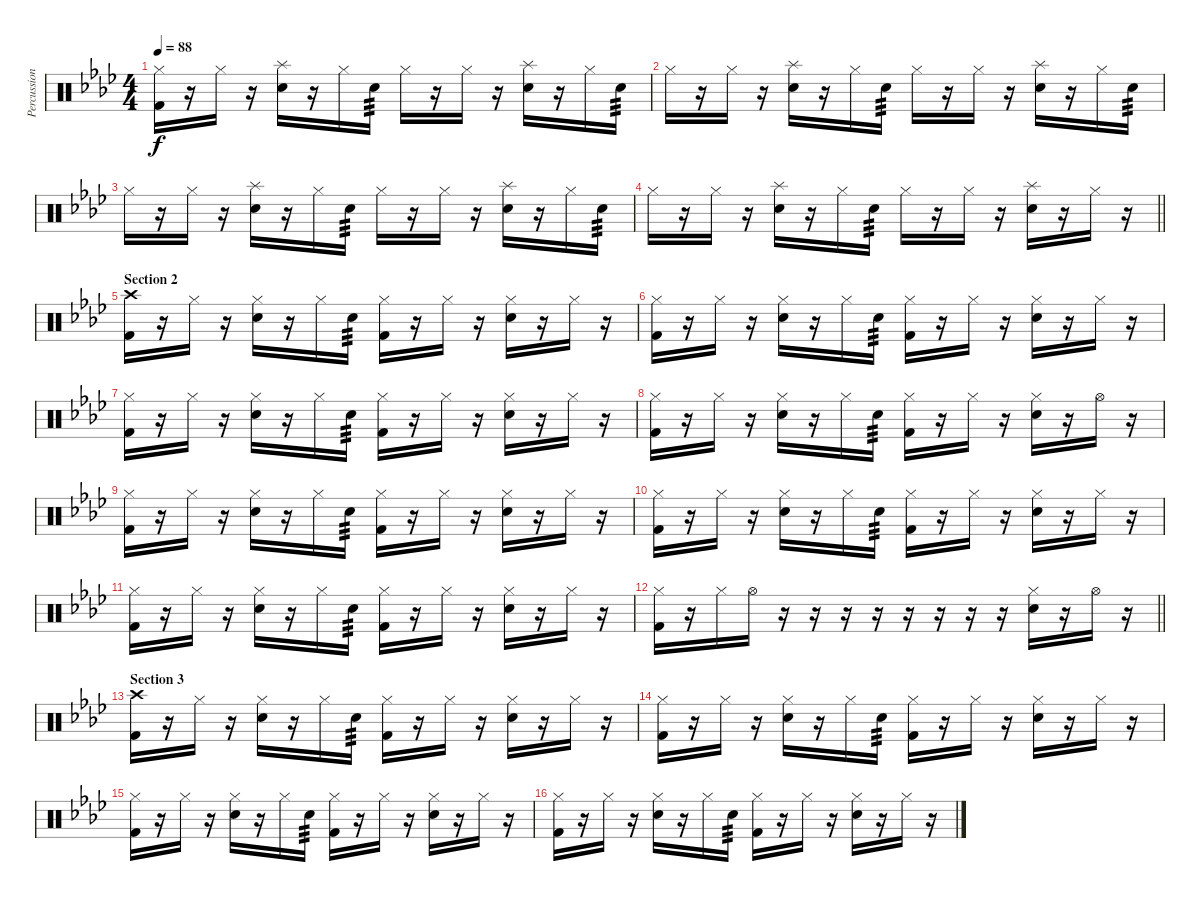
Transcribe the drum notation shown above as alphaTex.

\track ("Percussion" "Percussion") {instrument percussion}
\staff {score}
\articulation defaults
\ts (4 4)
\tempo 88
\clef neutral
\ks fminor
("Hi-Hat (closed)" "Kick (hit) 2").16{dy f} r.16 "Hi-Hat (closed)".16 r.16 ("Splash (hit)" "Snare (hit) 2").16 r.16 "Hi-Hat (closed)".16 "Snare (hit) 2".16{tp 3} "Hi-Hat (closed)".16 r.16 "Hi-Hat (closed)".16 r.16 ("Splash (hit)" "Snare (hit) 2").16 r.16 "Hi-Hat (closed)".16 "Snare (hit) 2".16{tp 3} |
"Hi-Hat (closed)".16 r.16 "Hi-Hat (closed)".16 r.16 ("Splash (hit)" "Snare (hit) 2").16 r.16 "Hi-Hat (closed)".16 "Snare (hit) 2".16{tp 3} "Hi-Hat (closed)".16 r.16 "Hi-Hat (closed)".16 r.16 ("Splash (hit)" "Snare (hit) 2").16 r.16 "Hi-Hat (closed)".16 "Snare (hit) 2".16{tp 3} |
"Hi-Hat (closed)".16 r.16 "Hi-Hat (closed)".16 r.16 ("Splash (hit)" "Snare (hit) 2").16 r.16 "Hi-Hat (closed)".16 "Snare (hit) 2".16{tp 3} "Hi-Hat (closed)".16 r.16 "Hi-Hat (closed)".16 r.16 ("Splash (hit)" "Snare (hit) 2").16 r.16 "Hi-Hat (closed)".16 "Snare (hit) 2".16{tp 3} |
\barLineRight lightlight "Hi-Hat (closed)".16
r.16 "Hi-Hat (closed)".16 r.16 ("Splash (hit)" "Snare (hit) 2").16 r.16 "Hi-Hat (closed)".16 "Snare (hit) 2".16{tp 3} "Hi-Hat (closed)".16 r.16 "Hi-Hat (closed)".16 r.16 ("Splash (hit)" "Snare (hit) 2").16 r.16 "Hi-Hat (closed)".16 r.16 |
\section ("" "Section 2")
("Crash high (hit)" "Kick (hit) 2").16 r.16 "Hi-Hat (closed)".16 r.16 ("Hi-Hat (closed)" "Snare (hit) 2").16 r.16 "Hi-Hat (closed)".16 "Snare (hit) 2".16{tp 3} ("Hi-Hat (closed)" "Kick (hit) 2").16 r.16 "Hi-Hat (closed)".16 r.16 ("Hi-Hat (closed)" "Snare (hit) 2").16 r.16 "Hi-Hat (closed)".16 r.16 |
("Hi-Hat (closed)" "Kick (hit) 2").16 r.16 "Hi-Hat (closed)".16 r.16 ("Hi-Hat (closed)" "Snare (hit) 2").16 r.16 "Hi-Hat (closed)".16 "Snare (hit) 2".16{tp 3} ("Hi-Hat (closed)" "Kick (hit) 2").16 r.16 "Hi-Hat (closed)".16 r.16 ("Hi-Hat (closed)" "Snare (hit) 2").16 r.16 "Hi-Hat (closed)".16 r.16 |
("Hi-Hat (closed)" "Kick (hit) 2").16 r.16 "Hi-Hat (closed)".16 r.16 ("Hi-Hat (closed)" "Snare (hit) 2").16 r.16 "Hi-Hat (closed)".16 "Snare (hit) 2".16{tp 3} ("Hi-Hat (closed)" "Kick (hit) 2").16 r.16 "Hi-Hat (closed)".16 r.16 ("Hi-Hat (closed)" "Snare (hit) 2").16 r.16 "Hi-Hat (closed)".16 r.16 |
("Hi-Hat (closed)" "Kick (hit) 2").16 r.16 "Hi-Hat (closed)".16 r.16 ("Hi-Hat (closed)" "Snare (hit) 2").16 r.16 "Hi-Hat (closed)".16 "Snare (hit) 2".16{tp 3} ("Hi-Hat (closed)" "Kick (hit) 2").16 r.16 "Hi-Hat (closed)".16 r.16 ("Hi-Hat (closed)" "Snare (hit) 2").16 r.16 "Hi-Hat (open)".16 r.16 |
("Hi-Hat (closed)" "Kick (hit) 2").16 r.16 "Hi-Hat (closed)".16 r.16 ("Hi-Hat (closed)" "Snare (hit) 2").16 r.16 "Hi-Hat (closed)".16 "Snare (hit) 2".16{tp 3} ("Hi-Hat (closed)" "Kick (hit) 2").16 r.16 "Hi-Hat (closed)".16 r.16 ("Hi-Hat (closed)" "Snare (hit) 2").16 r.16 "Hi-Hat (closed)".16 r.16 |
("Hi-Hat (closed)" "Kick (hit) 2").16 r.16 "Hi-Hat (closed)".16 r.16 ("Hi-Hat (closed)" "Snare (hit) 2").16 r.16 "Hi-Hat (closed)".16 "Snare (hit) 2".16{tp 3} ("Hi-Hat (closed)" "Kick (hit) 2").16 r.16 "Hi-Hat (closed)".16 r.16 ("Hi-Hat (closed)" "Snare (hit) 2").16 r.16 "Hi-Hat (closed)".16 r.16 |
("Hi-Hat (closed)" "Kick (hit) 2").16 r.16 "Hi-Hat (closed)".16 r.16 ("Hi-Hat (closed)" "Snare (hit) 2").16 r.16 "Hi-Hat (closed)".16 "Snare (hit) 2".16{tp 3} ("Hi-Hat (closed)" "Kick (hit) 2").16 r.16 "Hi-Hat (closed)".16 r.16 ("Hi-Hat (closed)" "Snare (hit) 2").16 r.16 "Hi-Hat (closed)".16 r.16 |
\barLineRight lightlight
("Hi-Hat (closed)" "Kick (hit) 2").16 r.16 "Hi-Hat (closed)".16 "Hi-Hat (open)".16 r.16{volume 0} r.16 r.16 r.16 r.16 r.16 r.16 r.16{volume 16} ("Hi-Hat (closed)" "Snare (hit) 2").16 r.16 "Hi-Hat (open)".16 r.16 |
\section ("" "Section 3")
("Crash high (hit)" "Kick (hit) 2").16 r.16 "Hi-Hat (closed)".16 r.16 ("Hi-Hat (closed)" "Snare (hit) 2").16 r.16 "Hi-Hat (closed)".16 "Snare (hit) 2".16{tp 3} ("Hi-Hat (closed)" "Kick (hit) 2").16 r.16 "Hi-Hat (closed)".16 r.16 ("Hi-Hat (closed)" "Snare (hit) 2").16 r.16 "Hi-Hat (closed)".16 r.16 |
("Hi-Hat (closed)" "Kick (hit) 2").16 r.16 "Hi-Hat (closed)".16 r.16 ("Hi-Hat (closed)" "Snare (hit) 2").16 r.16 "Hi-Hat (closed)".16 "Snare (hit) 2".16{tp 3} ("Hi-Hat (closed)" "Kick (hit) 2").16 r.16 "Hi-Hat (closed)".16 r.16 ("Hi-Hat (closed)" "Snare (hit) 2").16 r.16 "Hi-Hat (closed)".16 r.16 |
("Hi-Hat (closed)" "Kick (hit) 2").16 r.16 "Hi-Hat (closed)".16 r.16 ("Hi-Hat (closed)" "Snare (hit) 2").16 r.16 "Hi-Hat (closed)".16 "Snare (hit) 2".16{tp 3} ("Hi-Hat (closed)" "Kick (hit) 2").16 r.16 "Hi-Hat (closed)".16 r.16 ("Hi-Hat (closed)" "Snare (hit) 2").16 r.16 "Hi-Hat (closed)".16 r.16 |
("Hi-Hat (closed)" "Kick (hit) 2").16 r.16 "Hi-Hat (closed)".16 r.16 ("Hi-Hat (closed)" "Snare (hit) 2").16 r.16 "Hi-Hat (closed)".16 "Snare (hit) 2".16{tp 3} ("Hi-Hat (closed)" "Kick (hit) 2").16 r.16 "Hi-Hat (closed)".16 r.16 ("Hi-Hat (closed)" "Snare (hit) 2").16 r.16 "Hi-Hat (closed)".16 r.16
